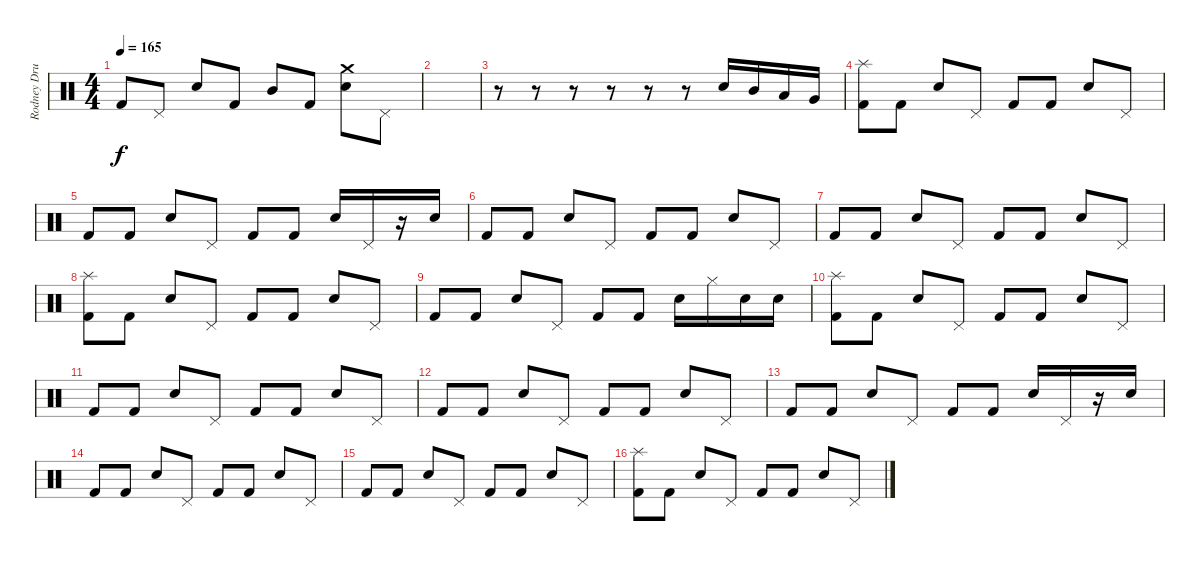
\track ("Rodney Drums" "Rodney Dru") {instrument percussion}
\staff {score}
\articulation defaults
\ts (4 4)
\tempo 165
\clef neutral
\ks c "Kick (hit) 2".8{dy f} "Pedal Hi-Hat (hit)".8 "Electric Snare (hit)".8 "Kick (hit) 2".8 "Mid Tom (hit)".8 "Kick (hit) 2".8
("Electric Snare (hit)" "Crash medium (hit)").8 "Pedal Hi-Hat (hit)".8 |
|
r.8 r.8 r.8 r.8 r.8 r.8 "Electric Snare (hit)".16 "Mid Tom (hit)".16 "Low Tom (hit)".16 "Very Low Tom (hit)".16 |
("Splash (hit)" "Kick (hit) 2").8 "Kick (hit) 2".8 "Electric Snare (hit)".8 "Pedal Hi-Hat (hit)".8 "Kick (hit) 2".8 "Kick (hit) 2".8 "Electric Snare (hit)".8 "Pedal Hi-Hat (hit)".8 |
"Kick (hit) 2".8 "Kick (hit) 2".8 "Electric Snare (hit)".8 "Pedal Hi-Hat (hit)".8 "Kick (hit) 2".8 "Kick (hit) 2".8 "Electric Snare (hit)".16 "Pedal Hi-Hat (hit)".16 r.16 "Electric Snare (hit)".16 |
"Kick (hit) 2".8 "Kick (hit) 2".8 "Electric Snare (hit)".8 "Pedal Hi-Hat (hit)".8 "Kick (hit) 2".8 "Kick (hit) 2".8 "Electric Snare (hit)".8 "Pedal Hi-Hat (hit)".8 |
"Kick (hit) 2".8 "Kick (hit) 2".8 "Electric Snare (hit)".8 "Pedal Hi-Hat (hit)".8 "Kick (hit) 2".8 "Kick (hit) 2".8 "Electric Snare (hit)".8 "Pedal Hi-Hat (hit)".8 |
("Splash (hit)" "Kick (hit) 2").8 "Kick (hit) 2".8 "Electric Snare (hit)".8 "Pedal Hi-Hat (hit)".8 "Kick (hit) 2".8 "Kick (hit) 2".8 "Electric Snare (hit)".8 "Pedal Hi-Hat (hit)".8 |
"Kick (hit) 2".8 "Kick (hit) 2".8 "Electric Snare (hit)".8 "Pedal Hi-Hat (hit)".8 "Kick (hit) 2".8 "Kick (hit) 2".8 "Electric Snare (hit)".16 "Hi-Hat (closed)".16 "Electric Snare (hit)".16 "Electric Snare (hit)".16 |
("Splash (hit)" "Kick (hit) 2").8 "Kick (hit) 2".8 "Electric Snare (hit)".8 "Pedal Hi-Hat (hit)".8 "Kick (hit) 2".8 "Kick (hit) 2".8 "Electric Snare (hit)".8 "Pedal Hi-Hat (hit)".8 |
"Kick (hit) 2".8 "Kick (hit) 2".8 "Electric Snare (hit)".8 "Pedal Hi-Hat (hit)".8 "Kick (hit) 2".8 "Kick (hit) 2".8 "Electric Snare (hit)".8 "Pedal Hi-Hat (hit)".8 |
"Kick (hit) 2".8 "Kick (hit) 2".8 "Electric Snare (hit)".8 "Pedal Hi-Hat (hit)".8 "Kick (hit) 2".8 "Kick (hit) 2".8 "Electric Snare (hit)".8 "Pedal Hi-Hat (hit)".8 |
"Kick (hit) 2".8 "Kick (hit) 2".8 "Electric Snare (hit)".8 "Pedal Hi-Hat (hit)".8 "Kick (hit) 2".8 "Kick (hit) 2".8 "Electric Snare (hit)".16 "Pedal Hi-Hat (hit)".16 r.16 "Electric Snare (hit)".16 |
"Kick (hit) 2".8 "Kick (hit) 2".8 "Electric Snare (hit)".8 "Pedal Hi-Hat (hit)".8 "Kick (hit) 2".8 "Kick (hit) 2".8 "Electric Snare (hit)".8 "Pedal Hi-Hat (hit)".8 |
"Kick (hit) 2".8 "Kick (hit) 2".8 "Electric Snare (hit)".8 "Pedal Hi-Hat (hit)".8 "Kick (hit) 2".8 "Kick (hit) 2".8 "Electric Snare (hit)".8 "Pedal Hi-Hat (hit)".8 |
("Splash (hit)" "Kick (hit) 2").8 "Kick (hit) 2".8 "Electric Snare (hit)".8 "Pedal Hi-Hat (hit)".8 "Kick (hit) 2".8 "Kick (hit) 2".8 "Electric Snare (hit)".8 "Pedal Hi-Hat (hit)".8
